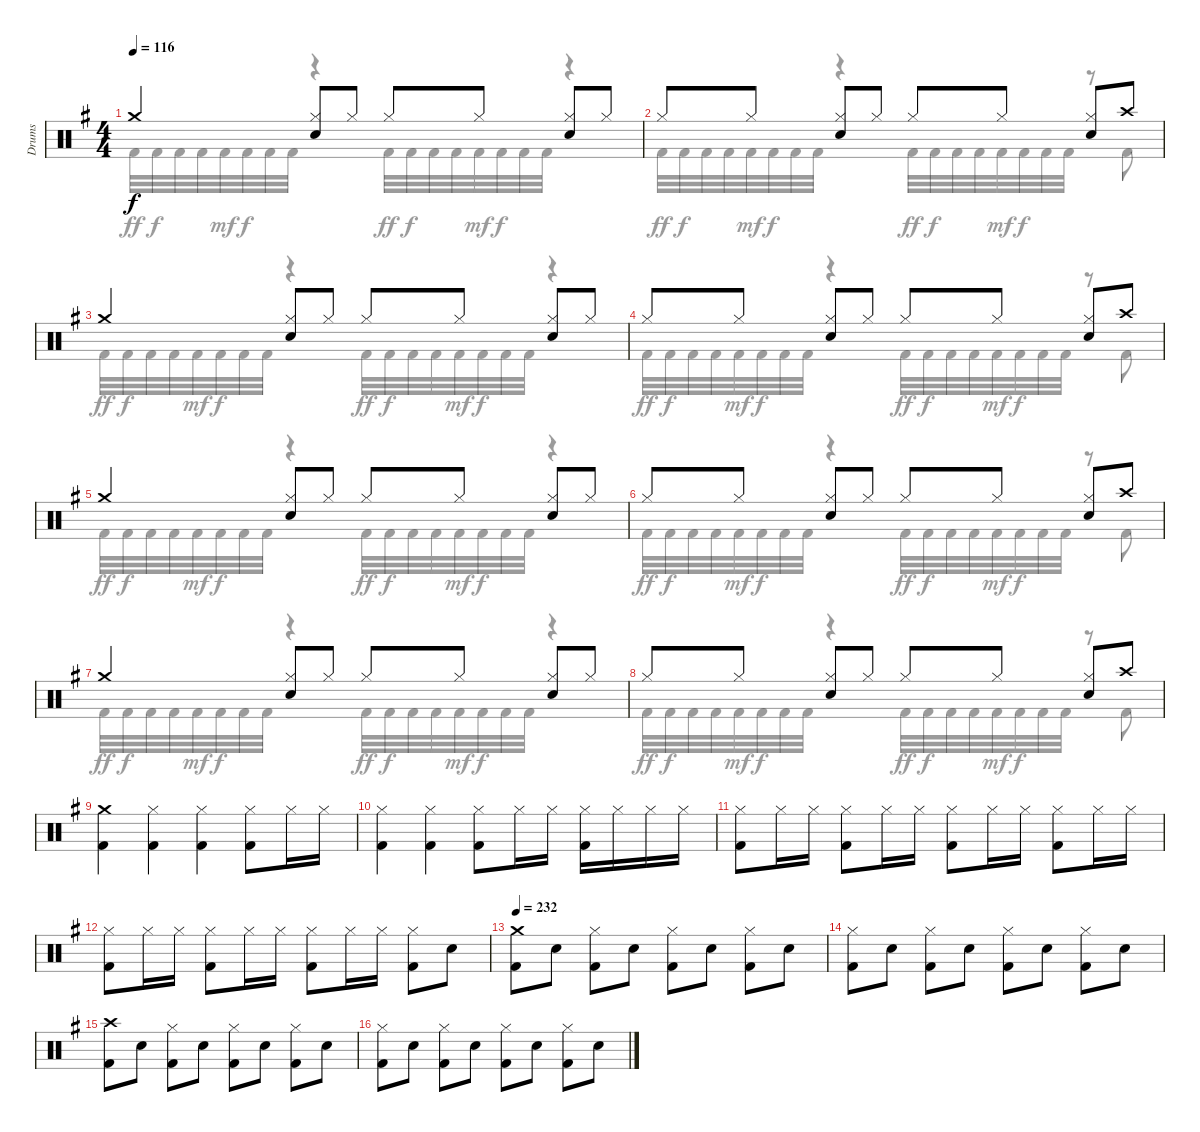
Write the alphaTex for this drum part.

\track ("Drums" "Drums") {instrument percussion}
\staff {score}
\articulation defaults
\voice
\ts (4 4)
\tempo 116
\clef neutral
\ks eminor "Crash medium (hit)".4{dy f}
("Hi-Hat (closed)" "Snare (hit) 2").8 "Hi-Hat (closed)".8 "Hi-Hat (closed)".8 "Hi-Hat (closed)".8 ("Hi-Hat (closed)" "Snare (hit) 2").8 "Hi-Hat (closed)".8 |
"Hi-Hat (closed)".8 "Hi-Hat (closed)".8 ("Hi-Hat (closed)" "Snare (hit) 2").8 "Hi-Hat (closed)".8 "Hi-Hat (closed)".8 "Hi-Hat (closed)".8 ("Hi-Hat (closed)" "Snare (hit) 2").8 "Crash high (hit)".8 |
"Crash medium (hit)".4 ("Hi-Hat (closed)" "Snare (hit) 2").8 "Hi-Hat (closed)".8 "Hi-Hat (closed)".8 "Hi-Hat (closed)".8 ("Hi-Hat (closed)" "Snare (hit) 2").8 "Hi-Hat (closed)".8 |
"Hi-Hat (closed)".8 "Hi-Hat (closed)".8 ("Hi-Hat (closed)" "Snare (hit) 2").8 "Hi-Hat (closed)".8 "Hi-Hat (closed)".8 "Hi-Hat (closed)".8 ("Hi-Hat (closed)" "Snare (hit) 2").8 "Crash high (hit)".8 |
"Crash medium (hit)".4 ("Hi-Hat (closed)" "Snare (hit) 2").8 "Hi-Hat (closed)".8 "Hi-Hat (closed)".8 "Hi-Hat (closed)".8 ("Hi-Hat (closed)" "Snare (hit) 2").8 "Hi-Hat (closed)".8 |
"Hi-Hat (closed)".8 "Hi-Hat (closed)".8 ("Hi-Hat (closed)" "Snare (hit) 2").8 "Hi-Hat (closed)".8 "Hi-Hat (closed)".8 "Hi-Hat (closed)".8 ("Hi-Hat (closed)" "Snare (hit) 2").8 "Crash high (hit)".8 |
"Crash medium (hit)".4 ("Hi-Hat (closed)" "Snare (hit) 2").8 "Hi-Hat (closed)".8 "Hi-Hat (closed)".8 "Hi-Hat (closed)".8 ("Hi-Hat (closed)" "Snare (hit) 2").8 "Hi-Hat (closed)".8 |
"Hi-Hat (closed)".8 "Hi-Hat (closed)".8 ("Hi-Hat (closed)" "Snare (hit) 2").8 "Hi-Hat (closed)".8 "Hi-Hat (closed)".8 "Hi-Hat (closed)".8 ("Hi-Hat (closed)" "Snare (hit) 2").8 "Crash high (hit)".8 |
("Crash medium (hit)" "Kick (hit) 2").4 ("Hi-Hat (closed)" "Kick (hit) 2").4 ("Hi-Hat (closed)" "Kick (hit) 2").4 ("Hi-Hat (closed)" "Kick (hit) 2").8 "Hi-Hat (closed)".16 "Hi-Hat (closed)".16 |
("Hi-Hat (closed)" "Kick (hit) 2").4 ("Hi-Hat (closed)" "Kick (hit) 2").4 ("Hi-Hat (closed)" "Kick (hit) 2").8 "Hi-Hat (closed)".16 "Hi-Hat (closed)".16 ("Hi-Hat (closed)" "Kick (hit) 2").16 "Hi-Hat (closed)".16 "Hi-Hat (closed)".16 "Hi-Hat (closed)".16 |
("Hi-Hat (closed)" "Kick (hit) 2").8 "Hi-Hat (closed)".16 "Hi-Hat (closed)".16 ("Hi-Hat (closed)" "Kick (hit) 2").8 "Hi-Hat (closed)".16 "Hi-Hat (closed)".16 ("Hi-Hat (closed)" "Kick (hit) 2").8 "Hi-Hat (closed)".16 "Hi-Hat (closed)".16 ("Hi-Hat (closed)" "Kick (hit) 2").8 "Hi-Hat (closed)".16 "Hi-Hat (closed)".16 |
("Hi-Hat (closed)" "Kick (hit) 2").8 "Hi-Hat (closed)".16 "Hi-Hat (closed)".16 ("Hi-Hat (closed)" "Kick (hit) 2").8 "Hi-Hat (closed)".16 "Hi-Hat (closed)".16 ("Hi-Hat (closed)" "Kick (hit) 2").8 "Hi-Hat (closed)".16 "Hi-Hat (closed)".16 ("Hi-Hat (closed)" "Kick (hit) 2").8 "Snare (hit) 2".8 |
\tempo 232
("Crash medium (hit)" "Kick (hit) 2").8 "Snare (hit) 2".8 ("Hi-Hat (closed)" "Kick (hit) 2").8 "Snare (hit) 2".8 ("Hi-Hat (closed)" "Kick (hit) 2").8 "Snare (hit) 2".8 ("Hi-Hat (closed)" "Kick (hit) 2").8 "Snare (hit) 2".8 |
("Hi-Hat (closed)" "Kick (hit) 2").8 "Snare (hit) 2".8 ("Hi-Hat (closed)" "Kick (hit) 2").8 "Snare (hit) 2".8 ("Hi-Hat (closed)" "Kick (hit) 2").8 "Snare (hit) 2".8 ("Hi-Hat (closed)" "Kick (hit) 2").8 "Snare (hit) 2".8 |
("Crash high (hit)" "Kick (hit) 2").8 "Snare (hit) 2".8 ("Hi-Hat (closed)" "Kick (hit) 2").8 "Snare (hit) 2".8 ("Hi-Hat (closed)" "Kick (hit) 2").8 "Snare (hit) 2".8 ("Hi-Hat (closed)" "Kick (hit) 2").8 "Snare (hit) 2".8 |
("Hi-Hat (closed)" "Kick (hit) 2").8 "Snare (hit) 2".8 ("Hi-Hat (closed)" "Kick (hit) 2").8 "Snare (hit) 2".8 ("Hi-Hat (closed)" "Kick (hit) 2").8 "Snare (hit) 2".8 ("Hi-Hat (closed)" "Kick (hit) 2").8 "Snare (hit) 2".8
\voice
\clef neutral
\ottava regular
\simile none
\ks eminor "Kick (hit) 2".32{dy ff} "Kick (hit) 2".32{dy f} "Kick (hit) 2".32 "Kick (hit) 2".32 "Kick (hit) 2".32{dy mf} "Kick (hit) 2".32{dy f} "Kick (hit) 2".32 "Kick (hit) 2".32
r.4 "Kick (hit) 2".32{dy ff} "Kick (hit) 2".32{dy f} "Kick (hit) 2".32 "Kick (hit) 2".32 "Kick (hit) 2".32{dy mf} "Kick (hit) 2".32{dy f} "Kick (hit) 2".32 "Kick (hit) 2".32 r.4 |
"Kick (hit) 2".32{dy ff} "Kick (hit) 2".32{dy f} "Kick (hit) 2".32 "Kick (hit) 2".32 "Kick (hit) 2".32{dy mf} "Kick (hit) 2".32{dy f} "Kick (hit) 2".32 "Kick (hit) 2".32 r.4 "Kick (hit) 2".32{dy ff} "Kick (hit) 2".32{dy f} "Kick (hit) 2".32 "Kick (hit) 2".32 "Kick (hit) 2".32{dy mf} "Kick (hit) 2".32{dy f} "Kick (hit) 2".32 "Kick (hit) 2".32 r.8 "Kick (hit) 2".8 |
"Kick (hit) 2".32{dy ff} "Kick (hit) 2".32{dy f} "Kick (hit) 2".32 "Kick (hit) 2".32 "Kick (hit) 2".32{dy mf} "Kick (hit) 2".32{dy f} "Kick (hit) 2".32 "Kick (hit) 2".32 r.4 "Kick (hit) 2".32{dy ff} "Kick (hit) 2".32{dy f} "Kick (hit) 2".32 "Kick (hit) 2".32 "Kick (hit) 2".32{dy mf} "Kick (hit) 2".32{dy f} "Kick (hit) 2".32 "Kick (hit) 2".32 r.4 |
"Kick (hit) 2".32{dy ff} "Kick (hit) 2".32{dy f} "Kick (hit) 2".32 "Kick (hit) 2".32 "Kick (hit) 2".32{dy mf} "Kick (hit) 2".32{dy f} "Kick (hit) 2".32 "Kick (hit) 2".32 r.4 "Kick (hit) 2".32{dy ff} "Kick (hit) 2".32{dy f} "Kick (hit) 2".32 "Kick (hit) 2".32 "Kick (hit) 2".32{dy mf} "Kick (hit) 2".32{dy f} "Kick (hit) 2".32 "Kick (hit) 2".32 r.8 "Kick (hit) 2".8 |
"Kick (hit) 2".32{dy ff} "Kick (hit) 2".32{dy f} "Kick (hit) 2".32 "Kick (hit) 2".32 "Kick (hit) 2".32{dy mf} "Kick (hit) 2".32{dy f} "Kick (hit) 2".32 "Kick (hit) 2".32 r.4 "Kick (hit) 2".32{dy ff} "Kick (hit) 2".32{dy f} "Kick (hit) 2".32 "Kick (hit) 2".32 "Kick (hit) 2".32{dy mf} "Kick (hit) 2".32{dy f} "Kick (hit) 2".32 "Kick (hit) 2".32 r.4 |
"Kick (hit) 2".32{dy ff} "Kick (hit) 2".32{dy f} "Kick (hit) 2".32 "Kick (hit) 2".32 "Kick (hit) 2".32{dy mf} "Kick (hit) 2".32{dy f} "Kick (hit) 2".32 "Kick (hit) 2".32 r.4 "Kick (hit) 2".32{dy ff} "Kick (hit) 2".32{dy f} "Kick (hit) 2".32 "Kick (hit) 2".32 "Kick (hit) 2".32{dy mf} "Kick (hit) 2".32{dy f} "Kick (hit) 2".32 "Kick (hit) 2".32 r.8 "Kick (hit) 2".8 |
"Kick (hit) 2".32{dy ff} "Kick (hit) 2".32{dy f} "Kick (hit) 2".32 "Kick (hit) 2".32 "Kick (hit) 2".32{dy mf} "Kick (hit) 2".32{dy f} "Kick (hit) 2".32 "Kick (hit) 2".32 r.4 "Kick (hit) 2".32{dy ff} "Kick (hit) 2".32{dy f} "Kick (hit) 2".32 "Kick (hit) 2".32 "Kick (hit) 2".32{dy mf} "Kick (hit) 2".32{dy f} "Kick (hit) 2".32 "Kick (hit) 2".32 r.4 |
"Kick (hit) 2".32{dy ff} "Kick (hit) 2".32{dy f} "Kick (hit) 2".32 "Kick (hit) 2".32 "Kick (hit) 2".32{dy mf} "Kick (hit) 2".32{dy f} "Kick (hit) 2".32 "Kick (hit) 2".32 r.4 "Kick (hit) 2".32{dy ff} "Kick (hit) 2".32{dy f} "Kick (hit) 2".32 "Kick (hit) 2".32 "Kick (hit) 2".32{dy mf} "Kick (hit) 2".32{dy f} "Kick (hit) 2".32 "Kick (hit) 2".32 r.8 "Kick (hit) 2".8 |
|
|
|
|
|
|
|
